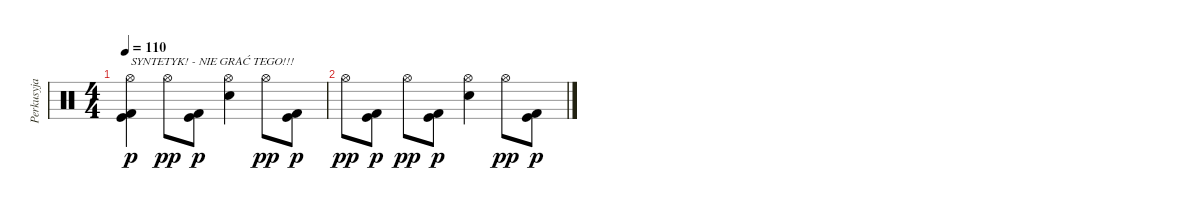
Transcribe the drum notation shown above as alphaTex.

\track ("Perkusyja" "Perkusyja") {instrument percussion}
\staff {score}
\articulation defaults
\ts (4 4)
\tempo 110
\clef neutral
\ks c
("Hi-Hat (open)" "Kick (hit) 2" "Kick (hit)").4{txt "SYNTETYK! - NIE GRAĆ TEGO!!!" dy p volume 0} "Hi-Hat (open)".8{dy pp} ("Kick (hit) 2" "Kick (hit)").8{dy p} ("Hi-Hat (open)" "Electric Snare (hit)").4 "Hi-Hat (open)".8{dy pp} ("Kick (hit) 2" "Kick (hit)").8{dy p} |
"Hi-Hat (open)".8{dy pp} ("Kick (hit)" "Kick (hit) 2").8{dy p} "Hi-Hat (open)".8{dy pp} ("Kick (hit)" "Kick (hit) 2").8{dy p} ("Hi-Hat (open)" "Electric Snare (hit)").4 "Hi-Hat (open)".8{dy pp} ("Kick (hit) 2" "Kick (hit)").8{dy p}
